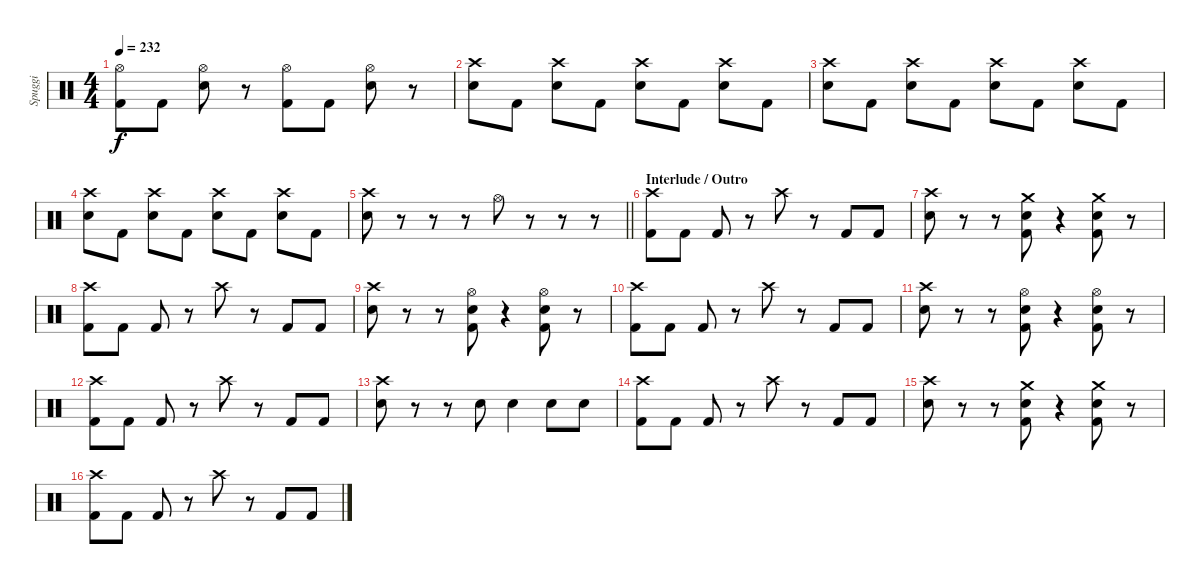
\track ("Spuggi" "Spuggi") {instrument percussion}
\staff {score}
\articulation defaults
\ts (4 4)
\tempo 232
\clef neutral
\ks c
("Hi-Hat (open)" "Kick (hit) 2").8{dy f} "Kick (hit) 2".8 ("Hi-Hat (open)" "Snare (hit) 2").8 r.8 ("Hi-Hat (open)" "Kick (hit) 2").8 "Kick (hit) 2".8 ("Hi-Hat (open)" "Snare (hit) 2").8 r.8 |
("Crash high (hit)" "Snare (hit) 2").8 "Kick (hit) 2".8 ("Crash high (hit)" "Snare (hit) 2").8 "Kick (hit) 2".8 ("Crash high (hit)" "Snare (hit) 2").8 "Kick (hit) 2".8 ("Crash high (hit)" "Snare (hit) 2").8 "Kick (hit) 2".8 |
("Crash high (hit)" "Snare (hit) 2").8 "Kick (hit) 2".8 ("Crash high (hit)" "Snare (hit) 2").8 "Kick (hit) 2".8 ("Crash high (hit)" "Snare (hit) 2").8 "Kick (hit) 2".8 ("Crash high (hit)" "Snare (hit) 2").8 "Kick (hit) 2".8 |
("Crash high (hit)" "Snare (hit) 2").8 "Kick (hit) 2".8 ("Crash high (hit)" "Snare (hit) 2").8 "Kick (hit) 2".8 ("Crash high (hit)" "Snare (hit) 2").8 "Kick (hit) 2".8 ("Crash high (hit)" "Snare (hit) 2").8 "Kick (hit) 2".8 |
\barLineRight lightlight
("Crash high (hit)" "Snare (hit) 2").8 r.8 r.8 r.8 "Hi-Hat (open)".8 r.8 r.8 r.8 |
\section ("" "Interlude / Outro")
("Crash high (hit)" "Kick (hit) 2").8 "Kick (hit) 2".8 "Kick (hit) 2".8 r.8 "Crash high (hit)".8 r.8 "Kick (hit) 2".8 "Kick (hit) 2".8 |
("Crash high (hit)" "Snare (hit) 2").8 r.8 r.8 ("Crash medium (hit)" "Snare (hit) 2" "Kick (hit) 2").8 r.4 ("Crash medium (hit)" "Snare (hit) 2" "Kick (hit) 2").8 r.8 |
("Crash high (hit)" "Kick (hit) 2").8 "Kick (hit) 2".8 "Kick (hit) 2".8 r.8 "Crash high (hit)".8 r.8 "Kick (hit) 2".8 "Kick (hit) 2".8 |
("Crash high (hit)" "Snare (hit) 2").8 r.8 r.8 ("Hi-Hat (open)" "Snare (hit) 2" "Kick (hit) 2").8 r.4 ("Hi-Hat (open)" "Snare (hit) 2" "Kick (hit) 2").8 r.8 |
("Crash high (hit)" "Kick (hit) 2").8 "Kick (hit) 2".8 "Kick (hit) 2".8 r.8 "Crash high (hit)".8 r.8 "Kick (hit) 2".8 "Kick (hit) 2".8 |
("Crash high (hit)" "Snare (hit) 2").8 r.8 r.8 ("Hi-Hat (open)" "Snare (hit) 2" "Kick (hit) 2").8 r.4 ("Hi-Hat (open)" "Snare (hit) 2" "Kick (hit) 2").8 r.8 |
("Crash high (hit)" "Kick (hit) 2").8 "Kick (hit) 2".8 "Kick (hit) 2".8 r.8 "Crash high (hit)".8 r.8 "Kick (hit) 2".8 "Kick (hit) 2".8 |
("Crash high (hit)" "Snare (hit) 2").8 r.8 r.8 "Snare (hit) 2".8 "Snare (hit) 2".4 "Snare (hit) 2".8 "Snare (hit) 2".8 |
("Crash high (hit)" "Kick (hit) 2").8 "Kick (hit) 2".8 "Kick (hit) 2".8 r.8 "Crash high (hit)".8 r.8 "Kick (hit) 2".8 "Kick (hit) 2".8 |
("Crash high (hit)" "Snare (hit) 2").8 r.8 r.8 ("Crash medium (hit)" "Snare (hit) 2" "Kick (hit) 2").8 r.4 ("Crash medium (hit)" "Snare (hit) 2" "Kick (hit) 2").8 r.8 |
("Crash high (hit)" "Kick (hit) 2").8 "Kick (hit) 2".8 "Kick (hit) 2".8 r.8 "Crash high (hit)".8 r.8 "Kick (hit) 2".8 "Kick (hit) 2".8
